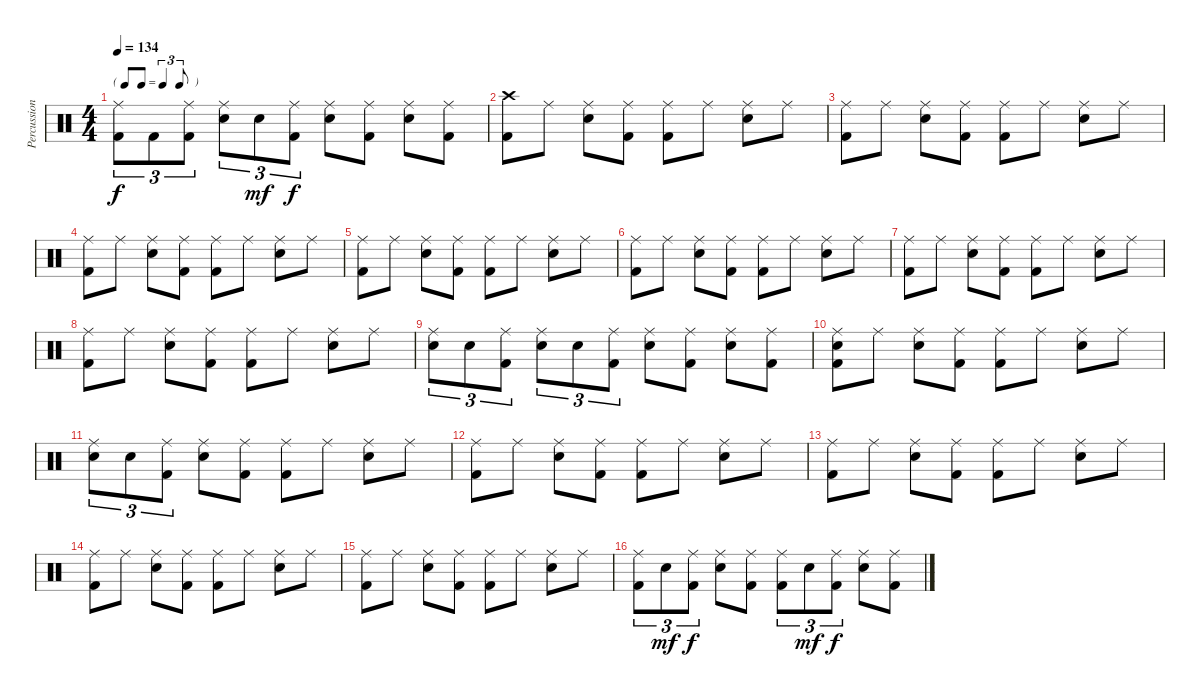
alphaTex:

\track ("Percussion" "Percussion") {instrument percussion}
\staff {score}
\articulation defaults
\ts (4 4)
\tf triplet8th
\tempo 134
\clef neutral
\ks c
("Ride (middle)" "Kick (hit) 2").8{tu (3 2) dy f} "Kick (hit) 2".8{tu (3 2)} ("Ride (middle)" "Kick (hit) 2").8{tu (3 2)} ("Ride (middle)" "Snare (hit) 2").8{tu (3 2)} "Snare (hit) 2".8{tu (3 2) dy mf} ("Ride (middle)" "Kick (hit) 2").8{tu (3 2) dy f} ("Ride (middle)" "Snare (hit) 2").8 ("Ride (middle)" "Kick (hit) 2").8 ("Ride (middle)" "Snare (hit) 2").8 ("Ride (middle)" "Kick (hit) 2").8 |
("Crash high (hit)" "Kick (hit) 2").8 "Ride (middle)".8 ("Ride (middle)" "Snare (hit) 2").8 ("Ride (middle)" "Kick (hit) 2").8 ("Ride (middle)" "Kick (hit) 2").8 "Ride (middle)".8 ("Ride (middle)" "Snare (hit) 2").8 "Ride (middle)".8 |
("Ride (middle)" "Kick (hit) 2").8 "Ride (middle)".8 ("Ride (middle)" "Snare (hit) 2").8 ("Ride (middle)" "Kick (hit) 2").8 ("Ride (middle)" "Kick (hit) 2").8 "Ride (middle)".8 ("Ride (middle)" "Snare (hit) 2").8 "Ride (middle)".8 |
("Ride (middle)" "Kick (hit) 2").8 "Ride (middle)".8 ("Ride (middle)" "Snare (hit) 2").8 ("Ride (middle)" "Kick (hit) 2").8 ("Ride (middle)" "Kick (hit) 2").8 "Ride (middle)".8 ("Ride (middle)" "Snare (hit) 2").8 "Ride (middle)".8 |
("Ride (middle)" "Kick (hit) 2").8 "Ride (middle)".8 ("Ride (middle)" "Snare (hit) 2").8 ("Ride (middle)" "Kick (hit) 2").8 ("Ride (middle)" "Kick (hit) 2").8 "Ride (middle)".8 ("Ride (middle)" "Snare (hit) 2").8 "Ride (middle)".8 |
("Ride (middle)" "Kick (hit) 2").8 "Ride (middle)".8 ("Ride (middle)" "Snare (hit) 2").8 ("Ride (middle)" "Kick (hit) 2").8 ("Ride (middle)" "Kick (hit) 2").8 "Ride (middle)".8 ("Ride (middle)" "Snare (hit) 2").8 "Ride (middle)".8 |
("Ride (middle)" "Kick (hit) 2").8 "Ride (middle)".8 ("Ride (middle)" "Snare (hit) 2").8 ("Ride (middle)" "Kick (hit) 2").8 ("Ride (middle)" "Kick (hit) 2").8 "Ride (middle)".8 ("Ride (middle)" "Snare (hit) 2").8 "Ride (middle)".8 |
("Ride (middle)" "Kick (hit) 2").8 "Ride (middle)".8 ("Ride (middle)" "Snare (hit) 2").8 ("Ride (middle)" "Kick (hit) 2").8 ("Ride (middle)" "Kick (hit) 2").8 "Ride (middle)".8 ("Ride (middle)" "Snare (hit) 2").8 "Ride (middle)".8 |
("Ride (middle)" "Snare (hit) 2").8{tu (3 2)} "Snare (hit) 2".8{tu (3 2)} ("Ride (middle)" "Kick (hit) 2").8{tu (3 2)} ("Ride (middle)" "Snare (hit) 2").8{tu (3 2)} "Snare (hit) 2".8{tu (3 2)} ("Ride (middle)" "Kick (hit) 2").8{tu (3 2)} ("Ride (middle)" "Snare (hit) 2").8 ("Ride (middle)" "Kick (hit) 2").8 ("Ride (middle)" "Snare (hit) 2").8 ("Ride (middle)" "Kick (hit) 2").8 |
("Ride (middle)" "Snare (hit) 2" "Kick (hit) 2").8 "Ride (middle)".8 ("Ride (middle)" "Snare (hit) 2").8 ("Ride (middle)" "Kick (hit) 2").8 ("Ride (middle)" "Kick (hit) 2").8 "Ride (middle)".8 ("Ride (middle)" "Snare (hit) 2").8 "Ride (middle)".8 |
("Ride (middle)" "Snare (hit) 2").8{tu (3 2)} "Snare (hit) 2".8{tu (3 2)} ("Ride (middle)" "Kick (hit) 2").8{tu (3 2)} ("Ride (middle)" "Snare (hit) 2").8 ("Ride (middle)" "Kick (hit) 2").8 ("Ride (middle)" "Kick (hit) 2").8 "Ride (middle)".8 ("Ride (middle)" "Snare (hit) 2").8 "Ride (middle)".8 |
("Ride (middle)" "Kick (hit) 2").8 "Ride (middle)".8 ("Ride (middle)" "Snare (hit) 2").8 ("Ride (middle)" "Kick (hit) 2").8 ("Ride (middle)" "Kick (hit) 2").8 "Ride (middle)".8 ("Ride (middle)" "Snare (hit) 2").8 "Ride (middle)".8 |
("Ride (middle)" "Kick (hit) 2").8 "Ride (middle)".8 ("Ride (middle)" "Snare (hit) 2").8 ("Ride (middle)" "Kick (hit) 2").8 ("Ride (middle)" "Kick (hit) 2").8 "Ride (middle)".8 ("Ride (middle)" "Snare (hit) 2").8 "Ride (middle)".8 |
("Ride (middle)" "Kick (hit) 2").8 "Ride (middle)".8 ("Ride (middle)" "Snare (hit) 2").8 ("Ride (middle)" "Kick (hit) 2").8 ("Ride (middle)" "Kick (hit) 2").8 "Ride (middle)".8 ("Ride (middle)" "Snare (hit) 2").8 "Ride (middle)".8 |
("Ride (middle)" "Kick (hit) 2").8 "Ride (middle)".8 ("Ride (middle)" "Snare (hit) 2").8 ("Ride (middle)" "Kick (hit) 2").8 ("Ride (middle)" "Kick (hit) 2").8 "Ride (middle)".8 ("Ride (middle)" "Snare (hit) 2").8 "Ride (middle)".8 |
("Ride (middle)" "Kick (hit) 2").8{tu (3 2)} "Snare (hit) 2".8{tu (3 2) dy mf} ("Ride (middle)" "Kick (hit) 2").8{tu (3 2) dy f} ("Ride (middle)" "Snare (hit) 2").8 ("Ride (middle)" "Kick (hit) 2").8 ("Ride (middle)" "Kick (hit) 2").8{tu (3 2)} "Snare (hit) 2".8{tu (3 2) dy mf} ("Ride (middle)" "Kick (hit) 2").8{tu (3 2) dy f} ("Ride (middle)" "Snare (hit) 2").8 ("Ride (middle)" "Kick (hit) 2").8
